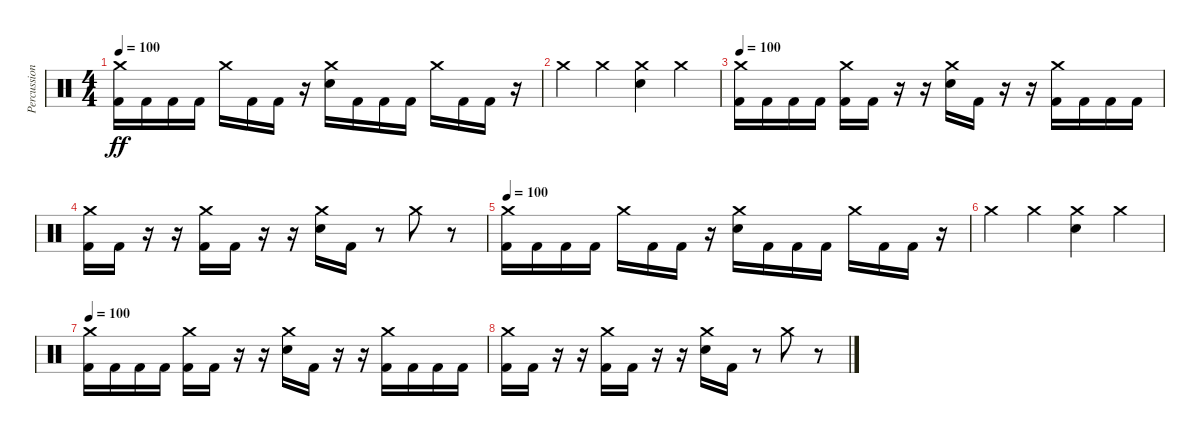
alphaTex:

\track ("Percussion" "Percussion") {instrument percussion}
\staff {score}
\articulation defaults
\ts (4 4)
\tempo 30
\tempo 100
\clef neutral
\ks c
("Crash medium (hit)" "Kick (hit) 2").16{dy ff} "Kick (hit) 2".16 "Kick (hit) 2".16 "Kick (hit) 2".16 "Crash medium (hit)".16 "Kick (hit) 2".16 "Kick (hit) 2".16 r.16 ("Crash medium (hit)" "Snare (hit) 2").16 "Kick (hit) 2".16 "Kick (hit) 2".16 "Kick (hit) 2".16 "Crash medium (hit)".16 "Kick (hit) 2".16 "Kick (hit) 2".16 r.16 |
"Crash medium (hit)".4 "Crash medium (hit)".4 ("Crash medium (hit)" "Snare (hit) 2").4 "Crash medium (hit)".4 |
\tempo 100
("Crash medium (hit)" "Kick (hit) 2").16 "Kick (hit) 2".16 "Kick (hit) 2".16 "Kick (hit) 2".16 ("Crash medium (hit)" "Kick (hit) 2").16 "Kick (hit) 2".16 r.16 r.16 ("Crash medium (hit)" "Snare (hit) 2").16 "Kick (hit) 2".16 r.16 r.16 ("Crash medium (hit)" "Kick (hit) 2").16 "Kick (hit) 2".16 "Kick (hit) 2".16 "Kick (hit) 2".16 |
("Crash medium (hit)" "Kick (hit) 2").16 "Kick (hit) 2".16 r.16 r.16 ("Crash medium (hit)" "Kick (hit) 2").16 "Kick (hit) 2".16 r.16 r.16 ("Crash medium (hit)" "Snare (hit) 2").16 "Kick (hit) 2".16 r.8 "Crash medium (hit)".8 r.8 |
\tempo 30
\tempo 100
("Crash medium (hit)" "Kick (hit) 2").16 "Kick (hit) 2".16 "Kick (hit) 2".16 "Kick (hit) 2".16 "Crash medium (hit)".16 "Kick (hit) 2".16 "Kick (hit) 2".16 r.16 ("Crash medium (hit)" "Snare (hit) 2").16 "Kick (hit) 2".16 "Kick (hit) 2".16 "Kick (hit) 2".16 "Crash medium (hit)".16 "Kick (hit) 2".16 "Kick (hit) 2".16 r.16 |
"Crash medium (hit)".4 "Crash medium (hit)".4 ("Crash medium (hit)" "Snare (hit) 2").4 "Crash medium (hit)".4 |
\tempo 100
("Crash medium (hit)" "Kick (hit) 2").16 "Kick (hit) 2".16 "Kick (hit) 2".16 "Kick (hit) 2".16 ("Crash medium (hit)" "Kick (hit) 2").16 "Kick (hit) 2".16 r.16 r.16 ("Crash medium (hit)" "Snare (hit) 2").16 "Kick (hit) 2".16 r.16 r.16 ("Crash medium (hit)" "Kick (hit) 2").16 "Kick (hit) 2".16 "Kick (hit) 2".16 "Kick (hit) 2".16 |
("Crash medium (hit)" "Kick (hit) 2").16 "Kick (hit) 2".16 r.16 r.16 ("Crash medium (hit)" "Kick (hit) 2").16 "Kick (hit) 2".16 r.16 r.16 ("Crash medium (hit)" "Snare (hit) 2").16 "Kick (hit) 2".16 r.8 "Crash medium (hit)".8 r.8
